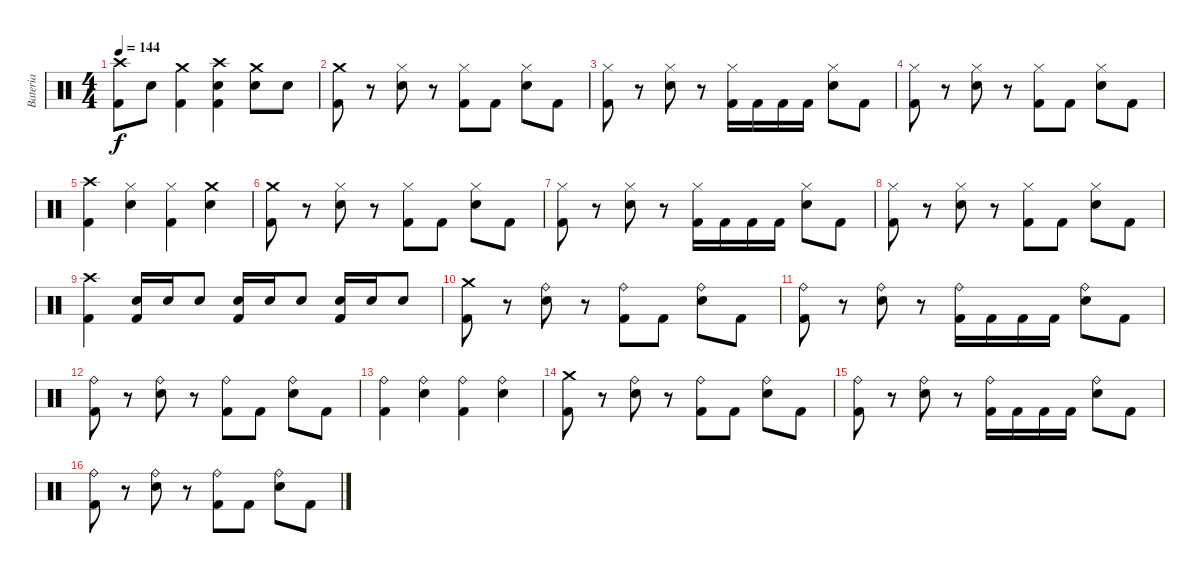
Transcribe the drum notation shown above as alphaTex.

\track ("Bateria" "Bateria") {instrument percussion}
\staff {score}
\articulation defaults
\ts (4 4)
\tempo 144
\clef neutral
\ks c
("Crash high (hit)" "Kick (hit) 2").8{dy f} "Electric Snare (hit)".8 ("Crash medium (hit)" "Kick (hit) 2").4 ("Crash high (hit)" "Electric Snare (hit)" "Kick (hit) 2").4 ("Crash medium (hit)" "Electric Snare (hit)").8 "Electric Snare (hit)".8 |
("Crash medium (hit)" "Kick (hit) 2").8 r.8 ("Hi-Hat (closed)" "Electric Snare (hit)").8 r.8 ("Hi-Hat (closed)" "Kick (hit) 2").8 "Kick (hit) 2".8 ("Hi-Hat (closed)" "Electric Snare (hit)").8 "Kick (hit) 2".8 |
("Hi-Hat (closed)" "Kick (hit) 2").8 r.8 ("Hi-Hat (closed)" "Electric Snare (hit)").8 r.8 ("Hi-Hat (closed)" "Kick (hit) 2").16 "Kick (hit) 2".16 "Kick (hit) 2".16 "Kick (hit) 2".16 ("Hi-Hat (closed)" "Electric Snare (hit)").8 "Kick (hit) 2".8 |
("Hi-Hat (closed)" "Kick (hit) 2").8 r.8 ("Hi-Hat (closed)" "Electric Snare (hit)").8 r.8 ("Hi-Hat (closed)" "Kick (hit) 2").8 "Kick (hit) 2".8 ("Hi-Hat (closed)" "Electric Snare (hit)").8 "Kick (hit) 2".8 |
("Crash high (hit)" "Kick (hit) 2").4 ("Hi-Hat (closed)" "Electric Snare (hit)").4 ("Hi-Hat (closed)" "Kick (hit) 2").4 ("Crash medium (hit)" "Electric Snare (hit)").4 |
("Crash medium (hit)" "Kick (hit) 2").8 r.8 ("Hi-Hat (closed)" "Electric Snare (hit)").8 r.8 ("Hi-Hat (closed)" "Kick (hit) 2").8 "Kick (hit) 2".8 ("Hi-Hat (closed)" "Electric Snare (hit)").8 "Kick (hit) 2".8 |
("Hi-Hat (closed)" "Kick (hit) 2").8 r.8 ("Hi-Hat (closed)" "Electric Snare (hit)").8 r.8 ("Hi-Hat (closed)" "Kick (hit) 2").16 "Kick (hit) 2".16 "Kick (hit) 2".16 "Kick (hit) 2".16 ("Hi-Hat (closed)" "Electric Snare (hit)").8 "Kick (hit) 2".8 |
("Hi-Hat (closed)" "Kick (hit) 2").8 r.8 ("Hi-Hat (closed)" "Electric Snare (hit)").8 r.8 ("Hi-Hat (closed)" "Kick (hit) 2").8 "Kick (hit) 2".8 ("Hi-Hat (closed)" "Electric Snare (hit)").8 "Kick (hit) 2".8 |
("Crash high (hit)" "Kick (hit) 2").4 ("Electric Snare (hit)" "Kick (hit) 2").16 "Electric Snare (hit)".16 "Electric Snare (hit)".8 ("Electric Snare (hit)" "Kick (hit) 2").16 "Electric Snare (hit)".16 "Electric Snare (hit)".8 ("Electric Snare (hit)" "Kick (hit) 2").16 "Electric Snare (hit)".16 "Electric Snare (hit)".8 |
("Crash medium (hit)" "Kick (hit) 2").8 r.8 ("Ride (bell)" "Electric Snare (hit)").8 r.8 ("Ride (bell)" "Kick (hit) 2").8 "Kick (hit) 2".8 ("Ride (bell)" "Electric Snare (hit)").8 "Kick (hit) 2".8 |
("Ride (bell)" "Kick (hit) 2").8 r.8 ("Ride (bell)" "Electric Snare (hit)").8 r.8 ("Ride (bell)" "Kick (hit) 2").16 "Kick (hit) 2".16 "Kick (hit) 2".16 "Kick (hit) 2".16 ("Ride (bell)" "Electric Snare (hit)").8 "Kick (hit) 2".8 |
("Ride (bell)" "Kick (hit) 2").8 r.8 ("Ride (bell)" "Electric Snare (hit)").8 r.8 ("Ride (bell)" "Kick (hit) 2").8 "Kick (hit) 2".8 ("Ride (bell)" "Electric Snare (hit)").8 "Kick (hit) 2".8 |
("Ride (bell)" "Kick (hit) 2").4 ("Ride (bell)" "Electric Snare (hit)").4 ("Ride (bell)" "Kick (hit) 2").4 ("Ride (bell)" "Electric Snare (hit)").4 |
("Crash medium (hit)" "Kick (hit) 2").8 r.8 ("Ride (bell)" "Electric Snare (hit)").8 r.8 ("Ride (bell)" "Kick (hit) 2").8 "Kick (hit) 2".8 ("Ride (bell)" "Electric Snare (hit)").8 "Kick (hit) 2".8 |
("Ride (bell)" "Kick (hit) 2").8 r.8 ("Ride (bell)" "Electric Snare (hit)").8 r.8 ("Ride (bell)" "Kick (hit) 2").16 "Kick (hit) 2".16 "Kick (hit) 2".16 "Kick (hit) 2".16 ("Ride (bell)" "Electric Snare (hit)").8 "Kick (hit) 2".8 |
("Ride (bell)" "Kick (hit) 2").8 r.8 ("Ride (bell)" "Electric Snare (hit)").8 r.8 ("Ride (bell)" "Kick (hit) 2").8 "Kick (hit) 2".8 ("Ride (bell)" "Electric Snare (hit)").8 "Kick (hit) 2".8
